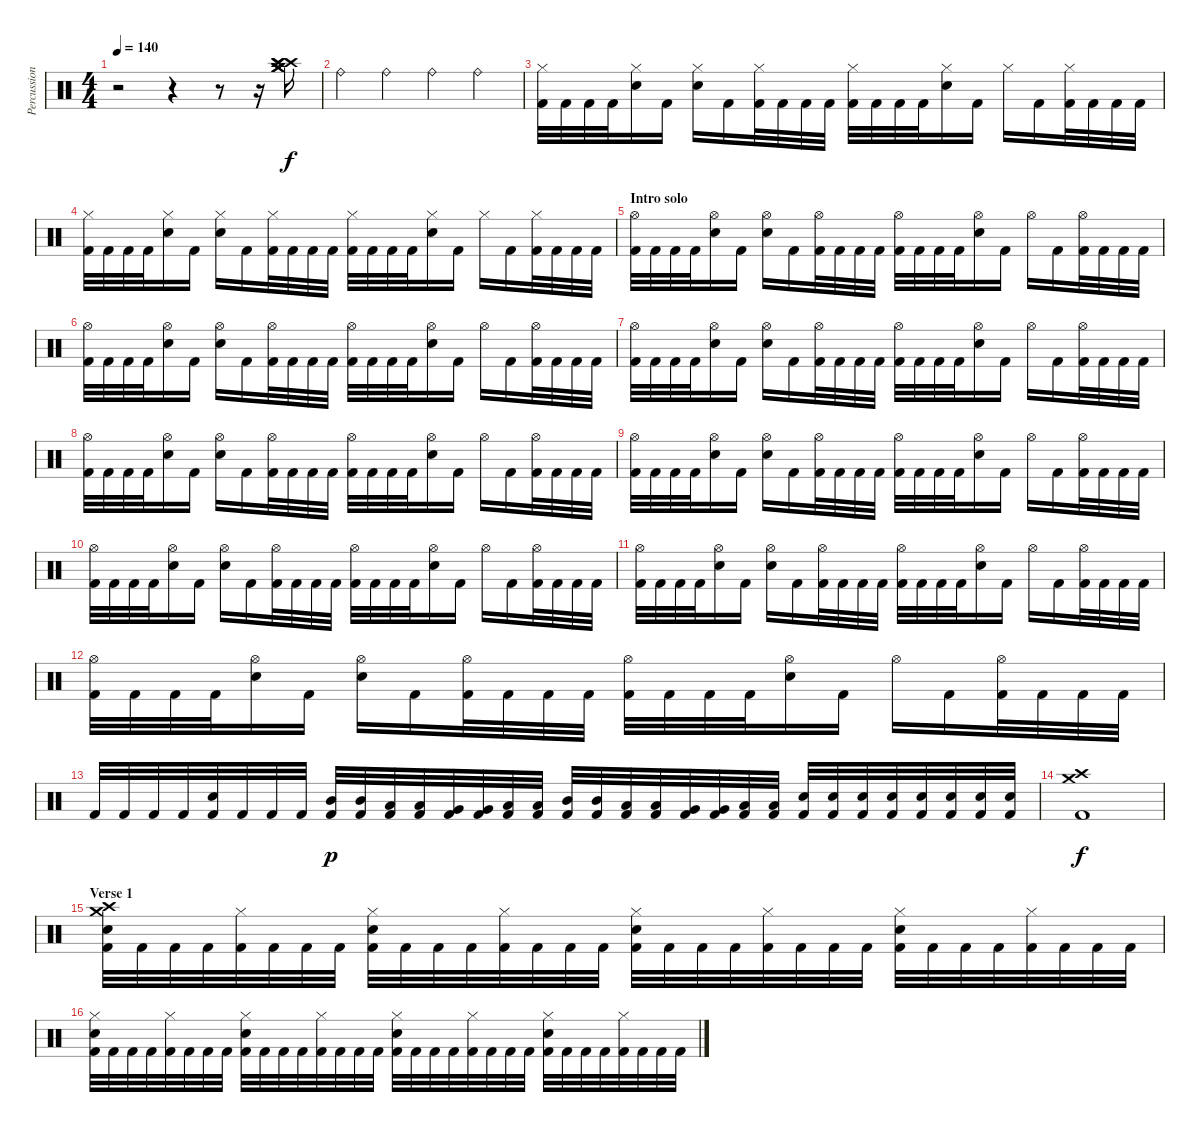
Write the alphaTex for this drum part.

\track ("Percussion" "Percussion") {instrument percussion}
\staff {score}
\articulation defaults
\ts (4 4)
\tempo 140
\clef neutral
\ks c
r.2{dy f} r.4 r.8 r.16 ("Crash medium (hit)" "Crash high (hit)" "Crash high (hit)" "Crash medium (hit)" "Crash medium (hit)" "Crash high (hit)").16 |
"Ride (bell)".4 "Ride (bell)".4 "Ride (bell)".4 "Ride (bell)".4 |
("Hi-Hat (closed)" "Kick (hit) 2").32 "Kick (hit) 2".32 "Kick (hit) 2".32 "Kick (hit) 2".32 ("Hi-Hat (closed)" "Electric Snare (hit)").16 "Kick (hit) 2".16 ("Hi-Hat (closed)" "Electric Snare (hit)").16 "Kick (hit) 2".16 ("Hi-Hat (closed)" "Kick (hit) 2").32 "Kick (hit) 2".32 "Kick (hit) 2".32 "Kick (hit) 2".32 ("Hi-Hat (closed)" "Kick (hit) 2").32 "Kick (hit) 2".32 "Kick (hit) 2".32 "Kick (hit) 2".32 ("Hi-Hat (closed)" "Electric Snare (hit)").16 "Kick (hit) 2".16 "Hi-Hat (closed)".16 "Kick (hit) 2".16 ("Hi-Hat (closed)" "Kick (hit) 2").32 "Kick (hit) 2".32 "Kick (hit) 2".32 "Kick (hit) 2".32 |
("Hi-Hat (closed)" "Kick (hit) 2").32 "Kick (hit) 2".32 "Kick (hit) 2".32 "Kick (hit) 2".32 ("Hi-Hat (closed)" "Electric Snare (hit)").16 "Kick (hit) 2".16 ("Hi-Hat (closed)" "Electric Snare (hit)").16 "Kick (hit) 2".16 ("Hi-Hat (closed)" "Kick (hit) 2").32 "Kick (hit) 2".32 "Kick (hit) 2".32 "Kick (hit) 2".32 ("Hi-Hat (closed)" "Kick (hit) 2").32 "Kick (hit) 2".32 "Kick (hit) 2".32 "Kick (hit) 2".32 ("Hi-Hat (closed)" "Electric Snare (hit)").16 "Kick (hit) 2".16 "Hi-Hat (closed)".16 "Kick (hit) 2".16 ("Hi-Hat (closed)" "Kick (hit) 2").32 "Kick (hit) 2".32 "Kick (hit) 2".32 "Kick (hit) 2".32 |
\section ("" "Intro solo")
("Hi-Hat (open)" "Kick (hit) 2").32 "Kick (hit) 2".32 "Kick (hit) 2".32 "Kick (hit) 2".32 ("Hi-Hat (open)" "Electric Snare (hit)").16 "Kick (hit) 2".16 ("Hi-Hat (open)" "Electric Snare (hit)").16 "Kick (hit) 2".16 ("Hi-Hat (open)" "Kick (hit) 2").32 "Kick (hit) 2".32 "Kick (hit) 2".32 "Kick (hit) 2".32 ("Hi-Hat (open)" "Kick (hit) 2").32 "Kick (hit) 2".32 "Kick (hit) 2".32 "Kick (hit) 2".32 ("Hi-Hat (open)" "Electric Snare (hit)").16 "Kick (hit) 2".16 "Hi-Hat (open)".16 "Kick (hit) 2".16 ("Hi-Hat (open)" "Kick (hit) 2").32 "Kick (hit) 2".32 "Kick (hit) 2".32 "Kick (hit) 2".32 |
("Hi-Hat (open)" "Kick (hit) 2").32 "Kick (hit) 2".32 "Kick (hit) 2".32 "Kick (hit) 2".32 ("Hi-Hat (open)" "Electric Snare (hit)").16 "Kick (hit) 2".16 ("Hi-Hat (open)" "Electric Snare (hit)").16 "Kick (hit) 2".16 ("Hi-Hat (open)" "Kick (hit) 2").32 "Kick (hit) 2".32 "Kick (hit) 2".32 "Kick (hit) 2".32 ("Hi-Hat (open)" "Kick (hit) 2").32 "Kick (hit) 2".32 "Kick (hit) 2".32 "Kick (hit) 2".32 ("Hi-Hat (open)" "Electric Snare (hit)").16 "Kick (hit) 2".16 "Hi-Hat (open)".16 "Kick (hit) 2".16 ("Hi-Hat (open)" "Kick (hit) 2").32 "Kick (hit) 2".32 "Kick (hit) 2".32 "Kick (hit) 2".32 |
("Hi-Hat (open)" "Kick (hit) 2").32 "Kick (hit) 2".32 "Kick (hit) 2".32 "Kick (hit) 2".32 ("Hi-Hat (open)" "Electric Snare (hit)").16 "Kick (hit) 2".16 ("Hi-Hat (open)" "Electric Snare (hit)").16 "Kick (hit) 2".16 ("Hi-Hat (open)" "Kick (hit) 2").32 "Kick (hit) 2".32 "Kick (hit) 2".32 "Kick (hit) 2".32 ("Hi-Hat (open)" "Kick (hit) 2").32 "Kick (hit) 2".32 "Kick (hit) 2".32 "Kick (hit) 2".32 ("Hi-Hat (open)" "Electric Snare (hit)").16 "Kick (hit) 2".16 "Hi-Hat (open)".16 "Kick (hit) 2".16 ("Hi-Hat (open)" "Kick (hit) 2").32 "Kick (hit) 2".32 "Kick (hit) 2".32 "Kick (hit) 2".32 |
("Hi-Hat (open)" "Kick (hit) 2").32 "Kick (hit) 2".32 "Kick (hit) 2".32 "Kick (hit) 2".32 ("Hi-Hat (open)" "Electric Snare (hit)").16 "Kick (hit) 2".16 ("Hi-Hat (open)" "Electric Snare (hit)").16 "Kick (hit) 2".16 ("Hi-Hat (open)" "Kick (hit) 2").32 "Kick (hit) 2".32 "Kick (hit) 2".32 "Kick (hit) 2".32 ("Hi-Hat (open)" "Kick (hit) 2").32 "Kick (hit) 2".32 "Kick (hit) 2".32 "Kick (hit) 2".32 ("Hi-Hat (open)" "Electric Snare (hit)").16 "Kick (hit) 2".16 "Hi-Hat (open)".16 "Kick (hit) 2".16 ("Hi-Hat (open)" "Kick (hit) 2").32 "Kick (hit) 2".32 "Kick (hit) 2".32 "Kick (hit) 2".32 |
("Hi-Hat (open)" "Kick (hit) 2").32 "Kick (hit) 2".32 "Kick (hit) 2".32 "Kick (hit) 2".32 ("Hi-Hat (open)" "Electric Snare (hit)").16 "Kick (hit) 2".16 ("Hi-Hat (open)" "Electric Snare (hit)").16 "Kick (hit) 2".16 ("Hi-Hat (open)" "Kick (hit) 2").32 "Kick (hit) 2".32 "Kick (hit) 2".32 "Kick (hit) 2".32 ("Hi-Hat (open)" "Kick (hit) 2").32 "Kick (hit) 2".32 "Kick (hit) 2".32 "Kick (hit) 2".32 ("Hi-Hat (open)" "Electric Snare (hit)").16 "Kick (hit) 2".16 "Hi-Hat (open)".16 "Kick (hit) 2".16 ("Hi-Hat (open)" "Kick (hit) 2").32 "Kick (hit) 2".32 "Kick (hit) 2".32 "Kick (hit) 2".32 |
("Hi-Hat (open)" "Kick (hit) 2").32 "Kick (hit) 2".32 "Kick (hit) 2".32 "Kick (hit) 2".32 ("Hi-Hat (open)" "Electric Snare (hit)").16 "Kick (hit) 2".16 ("Hi-Hat (open)" "Electric Snare (hit)").16 "Kick (hit) 2".16 ("Hi-Hat (open)" "Kick (hit) 2").32 "Kick (hit) 2".32 "Kick (hit) 2".32 "Kick (hit) 2".32 ("Hi-Hat (open)" "Kick (hit) 2").32 "Kick (hit) 2".32 "Kick (hit) 2".32 "Kick (hit) 2".32 ("Hi-Hat (open)" "Electric Snare (hit)").16 "Kick (hit) 2".16 "Hi-Hat (open)".16 "Kick (hit) 2".16 ("Hi-Hat (open)" "Kick (hit) 2").32 "Kick (hit) 2".32 "Kick (hit) 2".32 "Kick (hit) 2".32 |
("Hi-Hat (open)" "Kick (hit) 2").32 "Kick (hit) 2".32 "Kick (hit) 2".32 "Kick (hit) 2".32 ("Hi-Hat (open)" "Electric Snare (hit)").16 "Kick (hit) 2".16 ("Hi-Hat (open)" "Electric Snare (hit)").16 "Kick (hit) 2".16 ("Hi-Hat (open)" "Kick (hit) 2").32 "Kick (hit) 2".32 "Kick (hit) 2".32 "Kick (hit) 2".32 ("Hi-Hat (open)" "Kick (hit) 2").32 "Kick (hit) 2".32 "Kick (hit) 2".32 "Kick (hit) 2".32 ("Hi-Hat (open)" "Electric Snare (hit)").16 "Kick (hit) 2".16 "Hi-Hat (open)".16 "Kick (hit) 2".16 ("Hi-Hat (open)" "Kick (hit) 2").32 "Kick (hit) 2".32 "Kick (hit) 2".32 "Kick (hit) 2".32 |
("Hi-Hat (open)" "Kick (hit) 2").32 "Kick (hit) 2".32 "Kick (hit) 2".32 "Kick (hit) 2".32 ("Hi-Hat (open)" "Electric Snare (hit)").16 "Kick (hit) 2".16 ("Hi-Hat (open)" "Electric Snare (hit)").16 "Kick (hit) 2".16 ("Hi-Hat (open)" "Kick (hit) 2").32 "Kick (hit) 2".32 "Kick (hit) 2".32 "Kick (hit) 2".32 ("Hi-Hat (open)" "Kick (hit) 2").32 "Kick (hit) 2".32 "Kick (hit) 2".32 "Kick (hit) 2".32 ("Hi-Hat (open)" "Electric Snare (hit)").16 "Kick (hit) 2".16 "Hi-Hat (open)".16 "Kick (hit) 2".16 ("Hi-Hat (open)" "Kick (hit) 2").32 "Kick (hit) 2".32 "Kick (hit) 2".32 "Kick (hit) 2".32 |
"Kick (hit) 2".32 "Kick (hit) 2".32 "Kick (hit) 2".32 "Kick (hit) 2".32 ("Electric Snare (hit)" "Kick (hit) 2").32 "Kick (hit) 2".32 "Kick (hit) 2".32 "Kick (hit) 2".32 ("Mid Tom (hit)" "Kick (hit) 2").32{dy p} ("Mid Tom (hit)" "Kick (hit) 2").32 ("Low Tom (hit)" "Kick (hit) 2").32 ("Low Tom (hit)" "Kick (hit) 2").32 ("Very Low Tom (hit)" "Kick (hit) 2").32 ("Very Low Tom (hit)" "Kick (hit) 2").32 ("Low Floor Tom (hit)" "Kick (hit) 2").32 ("Low Floor Tom (hit)" "Kick (hit) 2").32 ("Mid Tom (hit)" "Kick (hit) 2").32 ("Mid Tom (hit)" "Kick (hit) 2").32 ("Low Tom (hit)" "Kick (hit) 2").32 ("Low Tom (hit)" "Kick (hit) 2").32 ("Very Low Tom (hit)" "Kick (hit) 2").32 ("Very Low Tom (hit)" "Kick (hit) 2").32 ("Low Floor Tom (hit)" "Kick (hit) 2").32 ("Low Floor Tom (hit)" "Kick (hit) 2").32 ("Electric Snare (hit)" "Kick (hit) 2").32 ("Electric Snare (hit)" "Kick (hit) 2").32 ("Electric Snare (hit)" "Kick (hit) 2").32 ("Electric Snare (hit)" "Kick (hit) 2").32 ("Electric Snare (hit)" "Kick (hit) 2").32 ("Electric Snare (hit)" "Kick (hit) 2").32 ("Electric Snare (hit)" "Kick (hit) 2").32 ("Electric Snare (hit)" "Kick (hit) 2").32 |
("Crash medium (hit)" "Crash high (hit)" "Kick (hit) 2").1{dy f} |
\section ("" "Verse 1")
("Crash medium (hit)" "Crash high (hit)" "Electric Snare (hit)" "Kick (hit) 2").32 "Kick (hit) 2".32 "Kick (hit) 2".32 "Kick (hit) 2".32 ("Hi-Hat (closed)" "Kick (hit) 2").32 "Kick (hit) 2".32 "Kick (hit) 2".32 "Kick (hit) 2".32 ("Hi-Hat (closed)" "Electric Snare (hit)" "Kick (hit) 2").32 "Kick (hit) 2".32 "Kick (hit) 2".32 "Kick (hit) 2".32 ("Hi-Hat (closed)" "Kick (hit) 2").32 "Kick (hit) 2".32 "Kick (hit) 2".32 "Kick (hit) 2".32 ("Hi-Hat (closed)" "Electric Snare (hit)" "Kick (hit) 2").32 "Kick (hit) 2".32 "Kick (hit) 2".32 "Kick (hit) 2".32 ("Hi-Hat (closed)" "Kick (hit) 2").32 "Kick (hit) 2".32 "Kick (hit) 2".32 "Kick (hit) 2".32 ("Hi-Hat (closed)" "Electric Snare (hit)" "Kick (hit) 2").32 "Kick (hit) 2".32 "Kick (hit) 2".32 "Kick (hit) 2".32 ("Hi-Hat (closed)" "Kick (hit) 2").32 "Kick (hit) 2".32 "Kick (hit) 2".32 "Kick (hit) 2".32 |
("Hi-Hat (closed)" "Electric Snare (hit)" "Kick (hit) 2").32 "Kick (hit) 2".32 "Kick (hit) 2".32 "Kick (hit) 2".32 ("Hi-Hat (closed)" "Kick (hit) 2").32 "Kick (hit) 2".32 "Kick (hit) 2".32 "Kick (hit) 2".32 ("Hi-Hat (closed)" "Electric Snare (hit)" "Kick (hit) 2").32 "Kick (hit) 2".32 "Kick (hit) 2".32 "Kick (hit) 2".32 ("Hi-Hat (closed)" "Kick (hit) 2").32 "Kick (hit) 2".32 "Kick (hit) 2".32 "Kick (hit) 2".32 ("Hi-Hat (closed)" "Electric Snare (hit)" "Kick (hit) 2").32 "Kick (hit) 2".32 "Kick (hit) 2".32 "Kick (hit) 2".32 ("Hi-Hat (closed)" "Kick (hit) 2").32 "Kick (hit) 2".32 "Kick (hit) 2".32 "Kick (hit) 2".32 ("Hi-Hat (closed)" "Electric Snare (hit)" "Kick (hit) 2").32 "Kick (hit) 2".32 "Kick (hit) 2".32 "Kick (hit) 2".32 ("Hi-Hat (closed)" "Kick (hit) 2").32 "Kick (hit) 2".32 "Kick (hit) 2".32 "Kick (hit) 2".32
